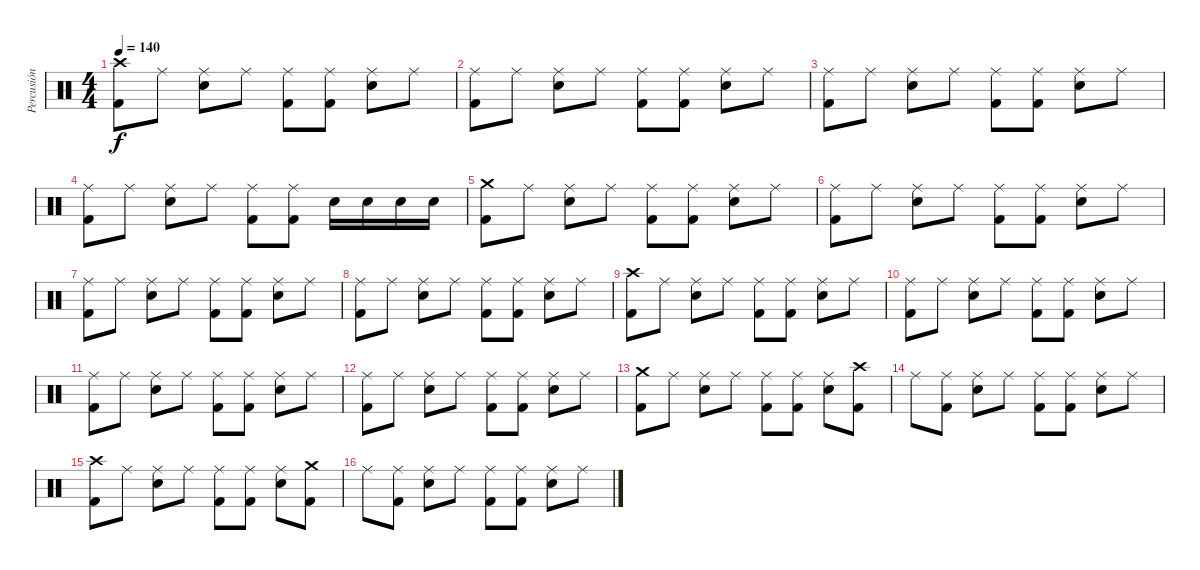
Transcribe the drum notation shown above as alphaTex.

\track ("Percusión" "Percusión") {instrument percussion}
\staff {score}
\articulation defaults
\ts (4 4)
\tempo 140
\clef neutral
\ks c
("Crash high (hit)" "Kick (hit) 2").8{dy f} "Ride (middle)".8 ("Ride (middle)" "Electric Snare (hit)").8 "Ride (middle)".8 ("Ride (middle)" "Kick (hit) 2").8 ("Ride (middle)" "Kick (hit) 2").8 ("Ride (middle)" "Electric Snare (hit)").8 "Ride (middle)".8 |
("Ride (middle)" "Kick (hit) 2").8 "Ride (middle)".8 ("Ride (middle)" "Electric Snare (hit)").8 "Ride (middle)".8 ("Ride (middle)" "Kick (hit) 2").8 ("Ride (middle)" "Kick (hit) 2").8 ("Ride (middle)" "Electric Snare (hit)").8 "Ride (middle)".8 |
("Ride (middle)" "Kick (hit) 2").8 "Ride (middle)".8 ("Ride (middle)" "Electric Snare (hit)").8 "Ride (middle)".8 ("Ride (middle)" "Kick (hit) 2").8 ("Ride (middle)" "Kick (hit) 2").8 ("Ride (middle)" "Electric Snare (hit)").8 "Ride (middle)".8 |
("Ride (middle)" "Kick (hit) 2").8 "Ride (middle)".8 ("Ride (middle)" "Electric Snare (hit)").8 "Ride (middle)".8 ("Ride (middle)" "Kick (hit) 2").8 ("Ride (middle)" "Kick (hit) 2").8 "Electric Snare (hit)".16 "Electric Snare (hit)".16 "Electric Snare (hit)".16 "Electric Snare (hit)".16 |
("Crash medium (hit)" "Kick (hit) 2").8 "Ride (middle)".8 ("Ride (middle)" "Electric Snare (hit)").8 "Ride (middle)".8 ("Ride (middle)" "Kick (hit) 2").8 ("Ride (middle)" "Kick (hit) 2").8 ("Ride (middle)" "Electric Snare (hit)").8 "Ride (middle)".8 |
("Ride (middle)" "Kick (hit) 2").8 "Ride (middle)".8 ("Ride (middle)" "Electric Snare (hit)").8 "Ride (middle)".8 ("Ride (middle)" "Kick (hit) 2").8 ("Ride (middle)" "Kick (hit) 2").8 ("Ride (middle)" "Electric Snare (hit)").8 "Ride (middle)".8 |
("Ride (middle)" "Kick (hit) 2").8 "Ride (middle)".8 ("Ride (middle)" "Electric Snare (hit)").8 "Ride (middle)".8 ("Ride (middle)" "Kick (hit) 2").8 ("Ride (middle)" "Kick (hit) 2").8 ("Ride (middle)" "Electric Snare (hit)").8 "Ride (middle)".8 |
("Ride (middle)" "Kick (hit) 2").8 "Ride (middle)".8 ("Ride (middle)" "Electric Snare (hit)").8 "Ride (middle)".8 ("Ride (middle)" "Kick (hit) 2").8 ("Ride (middle)" "Kick (hit) 2").8 ("Ride (middle)" "Electric Snare (hit)").8 "Ride (middle)".8 |
("Crash high (hit)" "Kick (hit) 2").8 "Ride (middle)".8 ("Ride (middle)" "Electric Snare (hit)").8 "Ride (middle)".8 ("Ride (middle)" "Kick (hit) 2").8 ("Ride (middle)" "Kick (hit) 2").8 ("Ride (middle)" "Electric Snare (hit)").8 "Ride (middle)".8 |
("Ride (middle)" "Kick (hit) 2").8 "Ride (middle)".8 ("Ride (middle)" "Electric Snare (hit)").8 "Ride (middle)".8 ("Ride (middle)" "Kick (hit) 2").8 ("Ride (middle)" "Kick (hit) 2").8 ("Ride (middle)" "Electric Snare (hit)").8 "Ride (middle)".8 |
("Ride (middle)" "Kick (hit) 2").8 "Ride (middle)".8 ("Ride (middle)" "Electric Snare (hit)").8 "Ride (middle)".8 ("Ride (middle)" "Kick (hit) 2").8 ("Ride (middle)" "Kick (hit) 2").8 ("Ride (middle)" "Electric Snare (hit)").8 "Ride (middle)".8 |
("Ride (middle)" "Kick (hit) 2").8 "Ride (middle)".8 ("Ride (middle)" "Electric Snare (hit)").8 "Ride (middle)".8 ("Ride (middle)" "Kick (hit) 2").8 ("Ride (middle)" "Kick (hit) 2").8 ("Ride (middle)" "Electric Snare (hit)").8 "Ride (middle)".8 |
("Crash medium (hit)" "Kick (hit) 2").8 "Ride (middle)".8 ("Ride (middle)" "Electric Snare (hit)").8 "Ride (middle)".8 ("Ride (middle)" "Kick (hit) 2").8 ("Ride (middle)" "Kick (hit) 2").8 ("Ride (middle)" "Electric Snare (hit)").8 ("Crash high (hit)" "Kick (hit) 2").8 |
"Ride (middle)".8 ("Ride (middle)" "Kick (hit) 2").8 ("Ride (middle)" "Electric Snare (hit)").8 "Ride (middle)".8 ("Ride (middle)" "Kick (hit) 2").8 ("Ride (middle)" "Kick (hit) 2").8 ("Ride (middle)" "Electric Snare (hit)").8 "Ride (middle)".8 |
("Crash high (hit)" "Kick (hit) 2").8 "Ride (middle)".8 ("Ride (middle)" "Electric Snare (hit)").8 "Ride (middle)".8 ("Ride (middle)" "Kick (hit) 2").8 ("Ride (middle)" "Kick (hit) 2").8 ("Ride (middle)" "Electric Snare (hit)").8 ("Crash medium (hit)" "Kick (hit) 2").8 |
"Ride (middle)".8 ("Ride (middle)" "Kick (hit) 2").8 ("Ride (middle)" "Electric Snare (hit)").8 "Ride (middle)".8 ("Ride (middle)" "Kick (hit) 2").8 ("Ride (middle)" "Kick (hit) 2").8 ("Ride (middle)" "Electric Snare (hit)").8 "Ride (middle)".8
